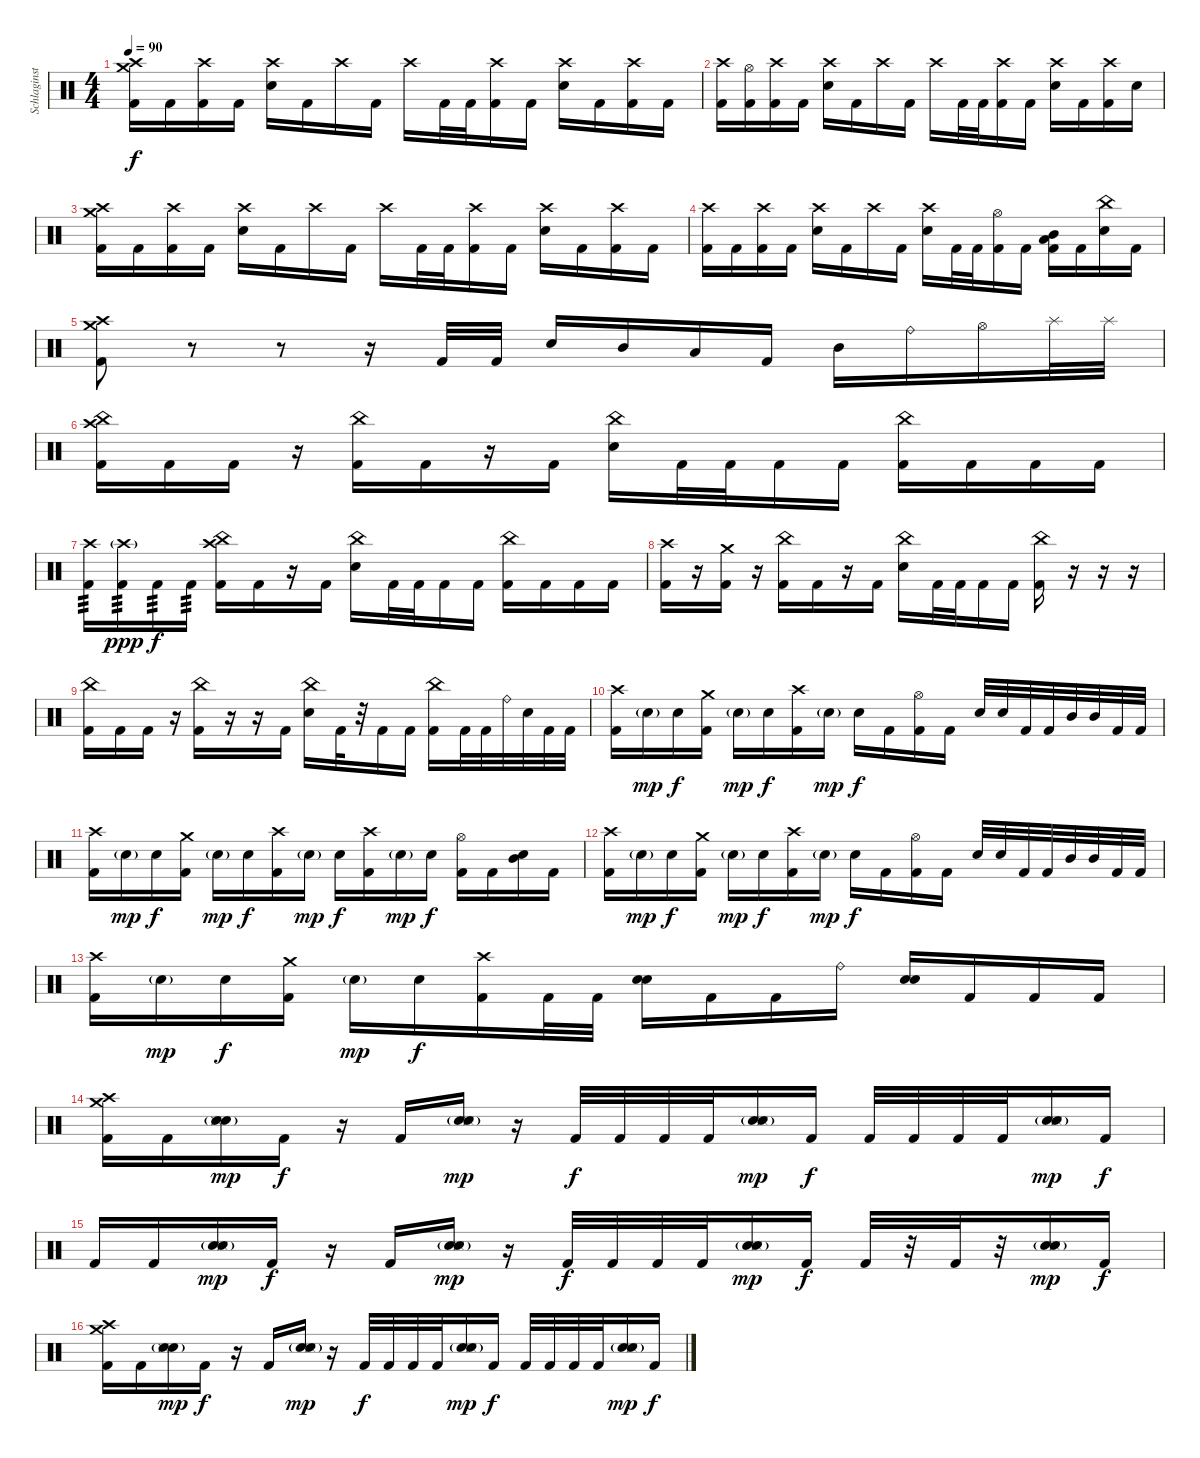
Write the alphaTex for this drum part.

\track ("Schlaginstrumente - Auswahl" "Schlaginst") {instrument percussion}
\staff {score}
\articulation defaults
\ts (4 4)
\tempo 90
\clef neutral
\ks c
("Crash high (hit)" "Crash medium (hit)" "Kick (hit) 2").16{dy f} "Kick (hit) 2".16 ("Crash high (hit)" "Kick (hit) 2").16 "Kick (hit) 2".16 ("Crash high (hit)" "Electric Snare (hit)").16 "Kick (hit) 2".16 "Crash high (hit)".16 "Kick (hit) 2".16 "Crash high (hit)".16 "Kick (hit) 2".32 "Kick (hit) 2".32 ("Crash high (hit)" "Kick (hit) 2").16 "Kick (hit) 2".16 ("Crash high (hit)" "Electric Snare (hit)").16 "Kick (hit) 2".16 ("Crash high (hit)" "Kick (hit) 2").16 "Kick (hit) 2".16 |
("Crash high (hit)" "Kick (hit) 2").16 ("Hi-Hat (open)" "Kick (hit) 2").16 ("Crash high (hit)" "Kick (hit) 2").16 "Kick (hit) 2".16 ("Crash high (hit)" "Electric Snare (hit)").16 "Kick (hit) 2".16 "Crash high (hit)".16 "Kick (hit) 2".16 "Crash high (hit)".16 "Kick (hit) 2".32 "Kick (hit) 2".32 ("Crash high (hit)" "Kick (hit) 2").16 "Kick (hit) 2".16 ("Crash high (hit)" "Electric Snare (hit)").16 "Kick (hit) 2".16 ("Crash high (hit)" "Kick (hit) 2").16 "Electric Snare (hit)".16 |
("Crash high (hit)" "Crash medium (hit)" "Kick (hit) 2").16 "Kick (hit) 2".16 ("Crash high (hit)" "Kick (hit) 2").16 "Kick (hit) 2".16 ("Crash high (hit)" "Electric Snare (hit)").16 "Kick (hit) 2".16 "Crash high (hit)".16 "Kick (hit) 2".16 "Crash high (hit)".16 "Kick (hit) 2".32 "Kick (hit) 2".32 ("Crash high (hit)" "Kick (hit) 2").16 "Kick (hit) 2".16 ("Crash high (hit)" "Electric Snare (hit)").16 "Kick (hit) 2".16 ("Crash high (hit)" "Kick (hit) 2").16 "Kick (hit) 2".16 |
("Crash high (hit)" "Kick (hit) 2").16 "Kick (hit) 2".16 ("Crash high (hit)" "Kick (hit) 2").16 "Kick (hit) 2".16 ("Crash high (hit)" "Electric Snare (hit)").16 "Kick (hit) 2".16 "Crash high (hit)".16 "Kick (hit) 2".16 ("Crash high (hit)" "Electric Snare (hit)").16 "Kick (hit) 2".32 "Kick (hit) 2".32 ("Hi-Hat (open)" "Kick (hit) 2").16 "Kick (hit) 2".16 ("Mid Tom (hit)" "Low Tom (hit)" "Kick (hit) 2").16 "Kick (hit) 2".16 ("China (hit)" "Electric Snare (hit)").16 "Kick (hit) 2".16 |
("Crash high (hit)" "Crash medium (hit)" "Kick (hit) 2").8 r.8 r.8 r.16 "Kick (hit) 2".32 "Kick (hit) 2".32 "Electric Snare (hit)".16 "Mid Tom (hit)".16 "Low Tom (hit)".16 "Kick (hit) 2".16 "Mid Tom (hit)".16 "Ride (bell)".16 "Hi-Hat (open)".16 "Splash (hit)".32 "Splash (hit)".32 |
("Crash high (hit)" "China (hit)" "Kick (hit) 2").16 "Kick (hit) 2".16 "Kick (hit) 2".16 r.16 ("China (hit)" "Kick (hit) 2").16 "Kick (hit) 2".16 r.16 "Kick (hit) 2".16 ("China (hit)" "Electric Snare (hit)").16 "Kick (hit) 2".32 "Kick (hit) 2".32 "Kick (hit) 2".16 "Kick (hit) 2".16 ("China (hit)" "Kick (hit) 2").16 "Kick (hit) 2".16 "Kick (hit) 2".16 "Kick (hit) 2".16 |
("Crash high (hit)" "Kick (hit) 2").16{tp 3} ("Crash high (hit)"{g} "Kick (hit) 2").16{tp 3 dy ppp} "Kick (hit) 2".16{tp 3 dy f} "Kick (hit) 2".16{tp 3} ("Crash high (hit)" "China (hit)" "Kick (hit) 2").16 "Kick (hit) 2".16 r.16 "Kick (hit) 2".16 ("China (hit)" "Electric Snare (hit)").16 "Kick (hit) 2".32 "Kick (hit) 2".32 "Kick (hit) 2".16 "Kick (hit) 2".16 ("China (hit)" "Kick (hit) 2").16 "Kick (hit) 2".16 "Kick (hit) 2".16 "Kick (hit) 2".16 |
("Crash high (hit)" "Kick (hit) 2").16 r.16 ("Crash medium (hit)" "Kick (hit) 2").16 r.16 ("China (hit)" "Kick (hit) 2").16 "Kick (hit) 2".16 r.16 "Kick (hit) 2".16 ("China (hit)" "Electric Snare (hit)").16 "Kick (hit) 2".32 "Kick (hit) 2".32 "Kick (hit) 2".16 "Kick (hit) 2".16 ("China (hit)" "Kick (hit) 2").16 r.16 r.16 r.16 |
("China (hit)" "Kick (hit) 2").16 "Kick (hit) 2".16 "Kick (hit) 2".16 r.16 ("China (hit)" "Kick (hit) 2").16 r.16 r.16 "Kick (hit) 2".16 ("China (hit)" "Electric Snare (hit)").16 "Kick (hit) 2".32 r.32 "Kick (hit) 2".16 "Kick (hit) 2".16 ("China (hit)" "Kick (hit) 2").16 "Kick (hit) 2".32 "Kick (hit) 2".32 "Ride (bell)".32 "Electric Snare (hit)".32 "Kick (hit) 2".32 "Kick (hit) 2".32 |
("Crash high (hit)" "Kick (hit) 2").16 "Electric Snare (hit)"{g}.16{dy mp} "Electric Snare (hit)".16{dy f} ("Crash medium (hit)" "Kick (hit) 2").16 "Electric Snare (hit)"{g}.16{dy mp} "Electric Snare (hit)".16{dy f} ("Crash high (hit)" "Kick (hit) 2").16 "Electric Snare (hit)"{g}.16{dy mp} "Electric Snare (hit)".16{dy f} "Kick (hit) 2".16 ("Hi-Hat (open)" "Kick (hit) 2").16 "Kick (hit) 2".16 "Electric Snare (hit)".32 "Electric Snare (hit)".32 "Kick (hit) 2".32 "Kick (hit) 2".32 "Mid Tom (hit)".32 "Mid Tom (hit)".32 "Kick (hit) 2".32 "Kick (hit) 2".32 |
("Crash high (hit)" "Kick (hit) 2").16 "Electric Snare (hit)"{g}.16{dy mp} "Electric Snare (hit)".16{dy f} ("Crash medium (hit)" "Kick (hit) 2").16 "Electric Snare (hit)"{g}.16{dy mp} "Electric Snare (hit)".16{dy f} ("Crash high (hit)" "Kick (hit) 2").16 "Electric Snare (hit)"{g}.16{dy mp} "Electric Snare (hit)".16{dy f} ("Crash high (hit)" "Kick (hit) 2").16 "Electric Snare (hit)"{g}.16{dy mp} "Electric Snare (hit)".16{dy f} ("Hi-Hat (open)" "Kick (hit) 2").16 "Kick (hit) 2".16 ("Mid Tom (hit)" "Electric Snare (hit)").16 "Kick (hit) 2".16 |
("Crash high (hit)" "Kick (hit) 2").16 "Electric Snare (hit)"{g}.16{dy mp} "Electric Snare (hit)".16{dy f} ("Crash medium (hit)" "Kick (hit) 2").16 "Electric Snare (hit)"{g}.16{dy mp} "Electric Snare (hit)".16{dy f} ("Crash high (hit)" "Kick (hit) 2").16 "Electric Snare (hit)"{g}.16{dy mp} "Electric Snare (hit)".16{dy f} "Kick (hit) 2".16 ("Hi-Hat (open)" "Kick (hit) 2").16 "Kick (hit) 2".16 "Electric Snare (hit)".32 "Electric Snare (hit)".32 "Kick (hit) 2".32 "Kick (hit) 2".32 "Mid Tom (hit)".32 "Mid Tom (hit)".32 "Kick (hit) 2".32 "Kick (hit) 2".32 |
("Crash high (hit)" "Kick (hit) 2").16 "Electric Snare (hit)"{g}.16{dy mp} "Electric Snare (hit)".16{dy f} ("Crash medium (hit)" "Kick (hit) 2").16 "Electric Snare (hit)"{g}.16{dy mp} "Electric Snare (hit)".16{dy f} ("Crash high (hit)" "Kick (hit) 2").16 "Kick (hit) 2".32 "Kick (hit) 2".32 ("Electric Snare (hit)" "Electric Snare (hit)").16{bd 480} "Kick (hit) 2".16 "Kick (hit) 2".16 "Ride (bell)".16 ("Electric Snare (hit)" "Electric Snare (hit)").16{bd 480} "Kick (hit) 2".16 "Kick (hit) 2".16 "Kick (hit) 2".16 |
("Crash high (hit)" "Crash medium (hit)" "Kick (hit) 2").16 "Kick (hit) 2".16 ("Hand Clap (hit)" "Snare (side stick) 3"{g} "Electric Snare (hit)").16{dy mp} "Kick (hit) 2".16{dy f} r.16 "Kick (hit) 2".16 ("Hand Clap (hit)" "Snare (side stick) 3"{g} "Electric Snare (hit)").16{dy mp} r.16 "Kick (hit) 2".32{dy f} "Kick (hit) 2".32 "Kick (hit) 2".32 "Kick (hit) 2".32 ("Hand Clap (hit)" "Snare (side stick) 3"{g} "Electric Snare (hit)").16{dy mp} "Kick (hit) 2".16{dy f} "Kick (hit) 2".32 "Kick (hit) 2".32 "Kick (hit) 2".32 "Kick (hit) 2".32 ("Hand Clap (hit)" "Snare (side stick) 3"{g} "Electric Snare (hit)").16{dy mp} "Kick (hit) 2".16{dy f} |
"Kick (hit) 2".16 "Kick (hit) 2".16 ("Hand Clap (hit)" "Snare (side stick) 3"{g} "Electric Snare (hit)").16{dy mp} "Kick (hit) 2".16{dy f} r.16 "Kick (hit) 2".16 ("Hand Clap (hit)" "Snare (side stick) 3"{g} "Electric Snare (hit)").16{dy mp} r.16 "Kick (hit) 2".32{dy f} "Kick (hit) 2".32 "Kick (hit) 2".32 "Kick (hit) 2".32 ("Hand Clap (hit)" "Snare (side stick) 3"{g} "Electric Snare (hit)").16{dy mp} "Kick (hit) 2".16{dy f} "Kick (hit) 2".32 r.32 "Kick (hit) 2".32 r.32 ("Hand Clap (hit)" "Snare (side stick) 3"{g} "Electric Snare (hit)").16{dy mp} "Kick (hit) 2".16{dy f} |
("Crash high (hit)" "Crash medium (hit)" "Kick (hit) 2").16 "Kick (hit) 2".16 ("Hand Clap (hit)" "Snare (side stick) 3"{g} "Electric Snare (hit)").16{dy mp} "Kick (hit) 2".16{dy f} r.16 "Kick (hit) 2".16 ("Hand Clap (hit)" "Snare (side stick) 3"{g} "Electric Snare (hit)").16{dy mp} r.16 "Kick (hit) 2".32{dy f} "Kick (hit) 2".32 "Kick (hit) 2".32 "Kick (hit) 2".32 ("Hand Clap (hit)" "Snare (side stick) 3"{g} "Electric Snare (hit)").16{dy mp} "Kick (hit) 2".16{dy f} "Kick (hit) 2".32 "Kick (hit) 2".32 "Kick (hit) 2".32 "Kick (hit) 2".32 ("Hand Clap (hit)" "Snare (side stick) 3"{g} "Electric Snare (hit)").16{dy mp} "Kick (hit) 2".16{dy f}
